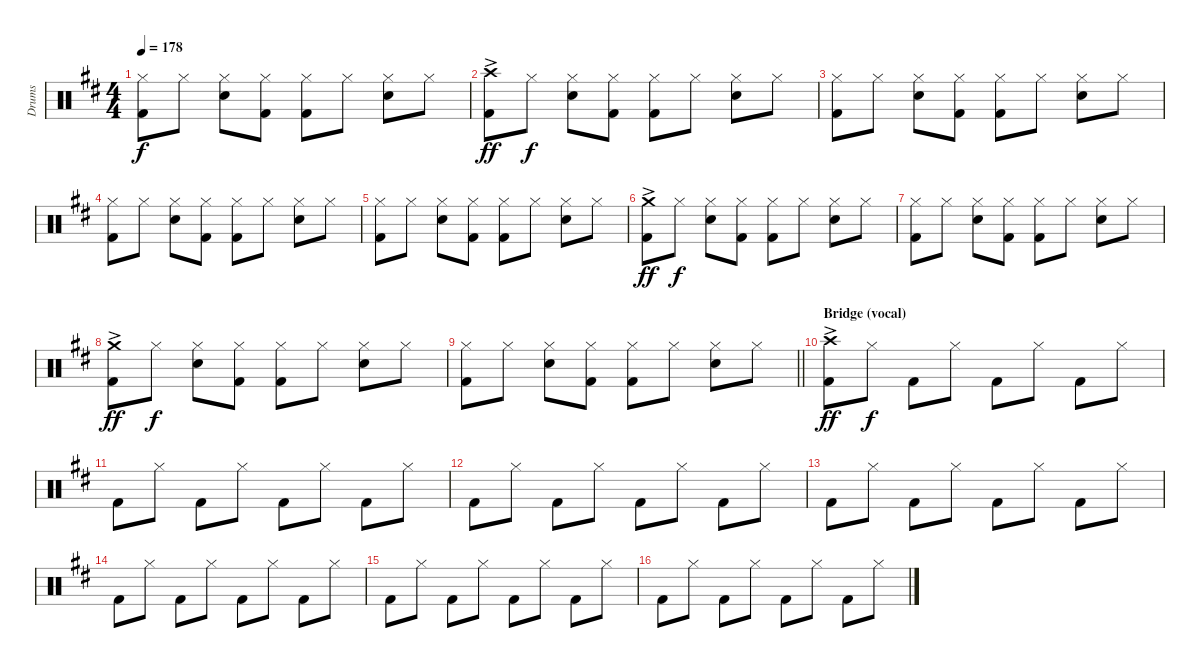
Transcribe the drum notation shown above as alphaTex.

\track ("Drums" "Drums") {instrument percussion}
\staff {score}
\articulation defaults
\ts (4 4)
\tempo 178
\clef neutral
\ks d
("Hi-Hat (closed)" "Kick (hit) 2").8{dy f} "Hi-Hat (closed)".8 ("Hi-Hat (closed)" "Electric Snare (hit)").8 ("Hi-Hat (closed)" "Kick (hit) 2").8 ("Hi-Hat (closed)" "Kick (hit) 2").8 "Hi-Hat (closed)".8 ("Hi-Hat (closed)" "Electric Snare (hit)").8 "Hi-Hat (closed)".8 |
("Crash high (hit)"{ac} "Kick (hit) 2").8{dy ff} "Hi-Hat (closed)".8{dy f} ("Hi-Hat (closed)" "Electric Snare (hit)").8 ("Hi-Hat (closed)" "Kick (hit) 2").8 ("Hi-Hat (closed)" "Kick (hit) 2").8 "Hi-Hat (closed)".8 ("Hi-Hat (closed)" "Electric Snare (hit)").8 "Hi-Hat (closed)".8 |
("Hi-Hat (closed)" "Kick (hit) 2").8 "Hi-Hat (closed)".8 ("Hi-Hat (closed)" "Electric Snare (hit)").8 ("Hi-Hat (closed)" "Kick (hit) 2").8 ("Hi-Hat (closed)" "Kick (hit) 2").8 "Hi-Hat (closed)".8 ("Hi-Hat (closed)" "Electric Snare (hit)").8 "Hi-Hat (closed)".8 |
("Hi-Hat (closed)" "Kick (hit) 2").8 "Hi-Hat (closed)".8 ("Hi-Hat (closed)" "Electric Snare (hit)").8 ("Hi-Hat (closed)" "Kick (hit) 2").8 ("Hi-Hat (closed)" "Kick (hit) 2").8 "Hi-Hat (closed)".8 ("Hi-Hat (closed)" "Electric Snare (hit)").8 "Hi-Hat (closed)".8 |
("Hi-Hat (closed)" "Kick (hit) 2").8 "Hi-Hat (closed)".8 ("Hi-Hat (closed)" "Electric Snare (hit)").8 ("Hi-Hat (closed)" "Kick (hit) 2").8 ("Hi-Hat (closed)" "Kick (hit) 2").8 "Hi-Hat (closed)".8 ("Hi-Hat (closed)" "Electric Snare (hit)").8 "Hi-Hat (closed)".8 |
("Crash medium (hit)"{ac} "Kick (hit) 2").8{dy ff} "Hi-Hat (closed)".8{dy f} ("Hi-Hat (closed)" "Electric Snare (hit)").8 ("Hi-Hat (closed)" "Kick (hit) 2").8 ("Hi-Hat (closed)" "Kick (hit) 2").8 "Hi-Hat (closed)".8 ("Hi-Hat (closed)" "Electric Snare (hit)").8 "Hi-Hat (closed)".8 |
("Hi-Hat (closed)" "Kick (hit) 2").8 "Hi-Hat (closed)".8 ("Hi-Hat (closed)" "Electric Snare (hit)").8 ("Hi-Hat (closed)" "Kick (hit) 2").8 ("Hi-Hat (closed)" "Kick (hit) 2").8 "Hi-Hat (closed)".8 ("Hi-Hat (closed)" "Electric Snare (hit)").8 "Hi-Hat (closed)".8 |
("Crash medium (hit)"{ac} "Kick (hit) 2").8{dy ff} "Hi-Hat (closed)".8{dy f} ("Hi-Hat (closed)" "Electric Snare (hit)").8 ("Hi-Hat (closed)" "Kick (hit) 2").8 ("Hi-Hat (closed)" "Kick (hit) 2").8 "Hi-Hat (closed)".8 ("Hi-Hat (closed)" "Electric Snare (hit)").8 "Hi-Hat (closed)".8 |
\barLineRight lightlight
("Hi-Hat (closed)" "Kick (hit) 2").8 "Hi-Hat (closed)".8 ("Hi-Hat (closed)" "Electric Snare (hit)").8 ("Hi-Hat (closed)" "Kick (hit) 2").8 ("Hi-Hat (closed)" "Kick (hit) 2").8 "Hi-Hat (closed)".8 ("Hi-Hat (closed)" "Electric Snare (hit)").8 "Hi-Hat (closed)".8 |
\section ("" "Bridge (vocal)")
("Crash high (hit)"{ac} "Kick (hit) 2").8{dy ff} "Hi-Hat (closed)".8{dy f} "Kick (hit) 2".8 "Hi-Hat (closed)".8 "Kick (hit) 2".8 "Hi-Hat (closed)".8 "Kick (hit) 2".8 "Hi-Hat (closed)".8 |
"Kick (hit) 2".8 "Hi-Hat (closed)".8 "Kick (hit) 2".8 "Hi-Hat (closed)".8 "Kick (hit) 2".8 "Hi-Hat (closed)".8 "Kick (hit) 2".8 "Hi-Hat (closed)".8 |
"Kick (hit) 2".8 "Hi-Hat (closed)".8 "Kick (hit) 2".8 "Hi-Hat (closed)".8 "Kick (hit) 2".8 "Hi-Hat (closed)".8 "Kick (hit) 2".8 "Hi-Hat (closed)".8 |
"Kick (hit) 2".8 "Hi-Hat (closed)".8 "Kick (hit) 2".8 "Hi-Hat (closed)".8 "Kick (hit) 2".8 "Hi-Hat (closed)".8 "Kick (hit) 2".8 "Hi-Hat (closed)".8 |
"Kick (hit) 2".8 "Hi-Hat (closed)".8 "Kick (hit) 2".8 "Hi-Hat (closed)".8 "Kick (hit) 2".8 "Hi-Hat (closed)".8 "Kick (hit) 2".8 "Hi-Hat (closed)".8 |
"Kick (hit) 2".8 "Hi-Hat (closed)".8 "Kick (hit) 2".8 "Hi-Hat (closed)".8 "Kick (hit) 2".8 "Hi-Hat (closed)".8 "Kick (hit) 2".8 "Hi-Hat (closed)".8 |
"Kick (hit) 2".8 "Hi-Hat (closed)".8 "Kick (hit) 2".8 "Hi-Hat (closed)".8 "Kick (hit) 2".8 "Hi-Hat (closed)".8 "Kick (hit) 2".8 "Hi-Hat (closed)".8
